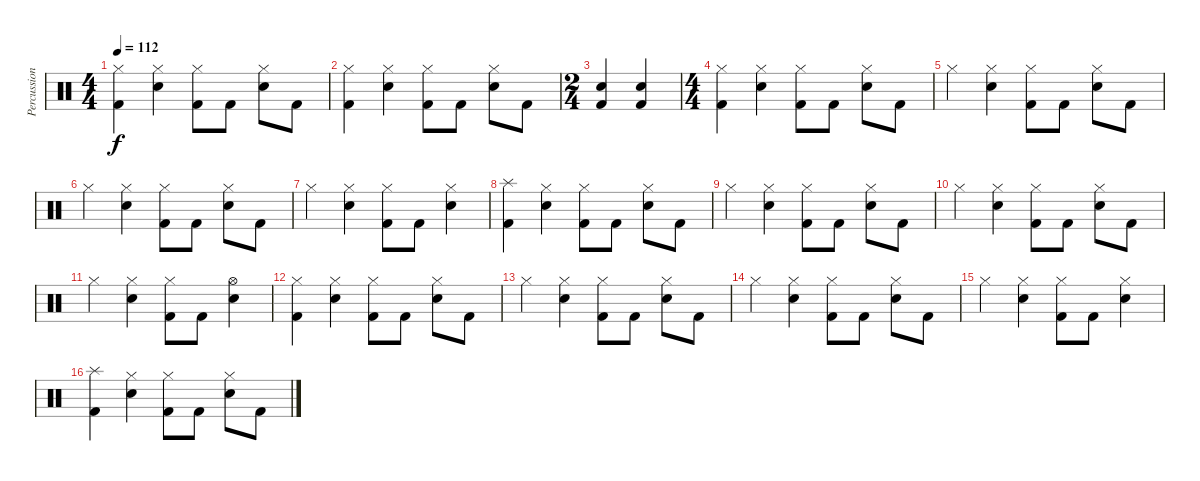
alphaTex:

\track ("Percussions" "Percussion") {instrument percussion}
\staff {score}
\articulation defaults
\ts (4 4)
\tempo 112
\clef neutral
\ks c
("Hi-Hat (closed)" "Kick (hit) 2").4{dy f} ("Hi-Hat (closed)" "Snare (hit) 2").4 ("Hi-Hat (closed)" "Kick (hit) 2").8 "Kick (hit) 2".8 ("Hi-Hat (closed)" "Snare (hit) 2").8 "Kick (hit) 2".8 |
("Hi-Hat (closed)" "Kick (hit) 2").4 ("Hi-Hat (closed)" "Snare (hit) 2").4 ("Hi-Hat (closed)" "Kick (hit) 2").8 "Kick (hit) 2".8 ("Hi-Hat (closed)" "Snare (hit) 2").8 "Kick (hit) 2".8 |
\ts (2 4)
("Snare (hit) 2" "Kick (hit) 2").4 ("Snare (hit) 2" "Kick (hit) 2").4 |
\ts (4 4)
("Hi-Hat (closed)" "Kick (hit) 2").4 ("Hi-Hat (closed)" "Snare (hit) 2").4 ("Hi-Hat (closed)" "Kick (hit) 2").8 "Kick (hit) 2".8 ("Hi-Hat (closed)" "Snare (hit) 2").8 "Kick (hit) 2".8 |
"Hi-Hat (closed)".4 ("Hi-Hat (closed)" "Snare (hit) 2").4 ("Hi-Hat (closed)" "Kick (hit) 2").8 "Kick (hit) 2".8 ("Hi-Hat (closed)" "Snare (hit) 2").8 "Kick (hit) 2".8 |
"Hi-Hat (closed)".4 ("Hi-Hat (closed)" "Snare (hit) 2").4 ("Hi-Hat (closed)" "Kick (hit) 2").8 "Kick (hit) 2".8 ("Hi-Hat (closed)" "Snare (hit) 2").8 "Kick (hit) 2".8 |
"Hi-Hat (closed)".4 ("Hi-Hat (closed)" "Snare (hit) 2").4 ("Hi-Hat (closed)" "Kick (hit) 2").8 "Kick (hit) 2".8 ("Hi-Hat (closed)" "Snare (hit) 2").4 |
("Splash (hit)" "Kick (hit) 2").4 ("Hi-Hat (closed)" "Snare (hit) 2").4 ("Hi-Hat (closed)" "Kick (hit) 2").8 "Kick (hit) 2".8 ("Hi-Hat (closed)" "Snare (hit) 2").8 "Kick (hit) 2".8 |
"Hi-Hat (closed)".4 ("Hi-Hat (closed)" "Snare (hit) 2").4 ("Hi-Hat (closed)" "Kick (hit) 2").8 "Kick (hit) 2".8 ("Hi-Hat (closed)" "Snare (hit) 2").8 "Kick (hit) 2".8 |
"Hi-Hat (closed)".4 ("Hi-Hat (closed)" "Snare (hit) 2").4 ("Hi-Hat (closed)" "Kick (hit) 2").8 "Kick (hit) 2".8 ("Hi-Hat (closed)" "Snare (hit) 2").8 "Kick (hit) 2".8 |
"Hi-Hat (closed)".4 ("Hi-Hat (closed)" "Snare (hit) 2").4 ("Hi-Hat (closed)" "Kick (hit) 2").8 "Kick (hit) 2".8 ("Hi-Hat (open)" "Snare (hit) 2").4 |
("Hi-Hat (closed)" "Kick (hit) 2").4 ("Hi-Hat (closed)" "Snare (hit) 2").4 ("Hi-Hat (closed)" "Kick (hit) 2").8 "Kick (hit) 2".8 ("Hi-Hat (closed)" "Snare (hit) 2").8 "Kick (hit) 2".8 |
"Hi-Hat (closed)".4 ("Hi-Hat (closed)" "Snare (hit) 2").4 ("Hi-Hat (closed)" "Kick (hit) 2").8 "Kick (hit) 2".8 ("Hi-Hat (closed)" "Snare (hit) 2").8 "Kick (hit) 2".8 |
"Hi-Hat (closed)".4 ("Hi-Hat (closed)" "Snare (hit) 2").4 ("Hi-Hat (closed)" "Kick (hit) 2").8 "Kick (hit) 2".8 ("Hi-Hat (closed)" "Snare (hit) 2").8 "Kick (hit) 2".8 |
"Hi-Hat (closed)".4 ("Hi-Hat (closed)" "Snare (hit) 2").4 ("Hi-Hat (closed)" "Kick (hit) 2").8 "Kick (hit) 2".8 ("Hi-Hat (closed)" "Snare (hit) 2").4 |
("Splash (hit)" "Kick (hit) 2").4 ("Hi-Hat (closed)" "Snare (hit) 2").4 ("Hi-Hat (closed)" "Kick (hit) 2").8 "Kick (hit) 2".8 ("Hi-Hat (closed)" "Snare (hit) 2").8 "Kick (hit) 2".8
